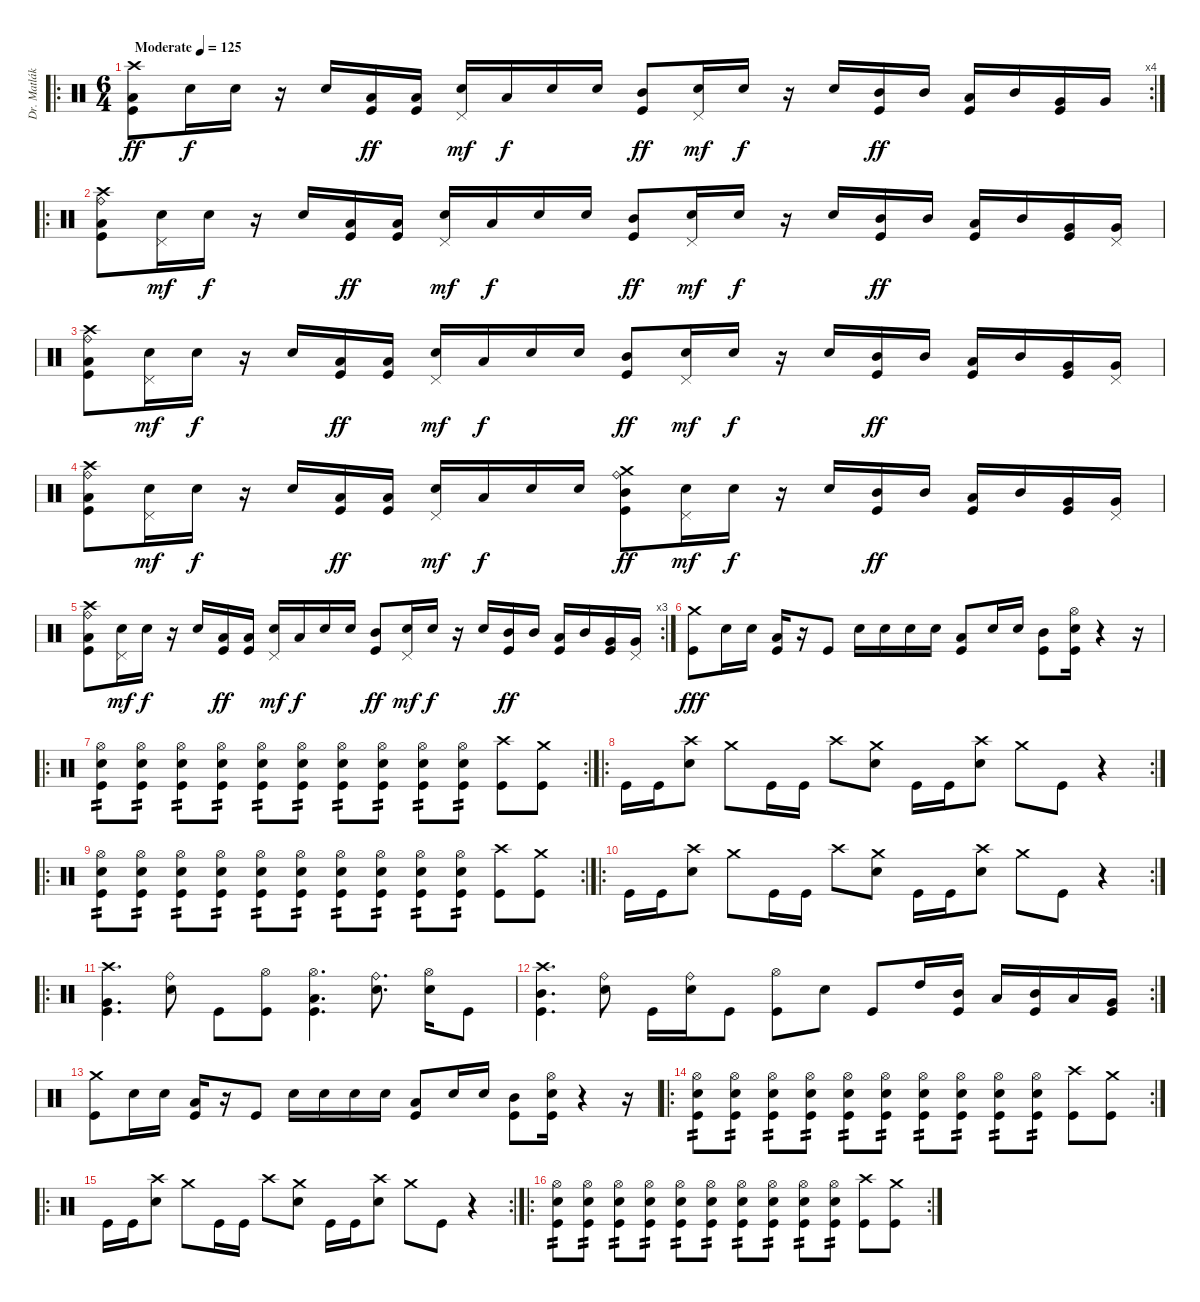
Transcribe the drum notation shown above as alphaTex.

\track ("Dr. Matlák" "Dr. Matlák") {instrument percussion}
\staff {score}
\articulation defaults
\ro
\rc 4
\ts (6 4)
\tempo (125 "Moderate")
\clef neutral
\ks c
("Crash high (hit)" "Low Tom (hit)" "Kick (hit)").8{dy ff} "Electric Snare (hit)".16{dy f} "Electric Snare (hit)".16 r.16 "Electric Snare (hit)".16 ("Low Tom (hit)" "Kick (hit)").16{dy ff} ("Low Tom (hit)" "Kick (hit)").16 ("Pedal Hi-Hat (hit)" "Electric Snare (hit)").16{dy mf} "Low Tom (hit)".16{dy f} "Electric Snare (hit)".16 "Electric Snare (hit)".16 ("Mid Tom (hit)" "Kick (hit)").8{dy ff} ("Pedal Hi-Hat (hit)" "Electric Snare (hit)").16{dy mf} "Electric Snare (hit)".16{dy f} r.16 "Electric Snare (hit)".16 ("Mid Tom (hit)" "Kick (hit)").16{dy ff} "Mid Tom (hit)".16 ("Low Tom (hit)" "Kick (hit)").16 "Mid Tom (hit)".16 ("Very Low Tom (hit)" "Kick (hit)").16 "Very Low Tom (hit)".16 |
\ro
("Crash high (hit)" "Ride (bell)" "Low Tom (hit)" "Kick (hit)").8 ("Pedal Hi-Hat (hit)" "Electric Snare (hit)").16{dy mf} "Electric Snare (hit)".16{dy f} r.16 "Electric Snare (hit)".16 ("Low Tom (hit)" "Kick (hit)").16{dy ff} ("Low Tom (hit)" "Kick (hit)").16 ("Pedal Hi-Hat (hit)" "Electric Snare (hit)").16{dy mf} "Low Tom (hit)".16{dy f} "Electric Snare (hit)".16 "Electric Snare (hit)".16 ("Mid Tom (hit)" "Kick (hit)").8{dy ff} ("Pedal Hi-Hat (hit)" "Electric Snare (hit)").16{dy mf} "Electric Snare (hit)".16{dy f} r.16 "Electric Snare (hit)".16 ("Mid Tom (hit)" "Kick (hit)").16{dy ff} "Mid Tom (hit)".16 ("Low Tom (hit)" "Kick (hit)").16 "Mid Tom (hit)".16 ("Very Low Tom (hit)" "Kick (hit)").16 ("Pedal Hi-Hat (hit)" "Very Low Tom (hit)").16 |
("Crash high (hit)" "Ride (bell)" "Low Tom (hit)" "Kick (hit)").8 ("Pedal Hi-Hat (hit)" "Electric Snare (hit)").16{dy mf} "Electric Snare (hit)".16{dy f} r.16 "Electric Snare (hit)".16 ("Low Tom (hit)" "Kick (hit)").16{dy ff} ("Low Tom (hit)" "Kick (hit)").16 ("Pedal Hi-Hat (hit)" "Electric Snare (hit)").16{dy mf} "Low Tom (hit)".16{dy f} "Electric Snare (hit)".16 "Electric Snare (hit)".16 ("Mid Tom (hit)" "Kick (hit)").8{dy ff} ("Pedal Hi-Hat (hit)" "Electric Snare (hit)").16{dy mf} "Electric Snare (hit)".16{dy f} r.16 "Electric Snare (hit)".16 ("Mid Tom (hit)" "Kick (hit)").16{dy ff} "Mid Tom (hit)".16 ("Low Tom (hit)" "Kick (hit)").16 "Mid Tom (hit)".16 ("Very Low Tom (hit)" "Kick (hit)").16 ("Pedal Hi-Hat (hit)" "Very Low Tom (hit)").16 |
("Crash high (hit)" "Ride (bell)" "Low Tom (hit)" "Kick (hit)").8 ("Pedal Hi-Hat (hit)" "Electric Snare (hit)").16{dy mf} "Electric Snare (hit)".16{dy f} r.16 "Electric Snare (hit)".16 ("Low Tom (hit)" "Kick (hit)").16{dy ff} ("Low Tom (hit)" "Kick (hit)").16 ("Pedal Hi-Hat (hit)" "Electric Snare (hit)").16{dy mf} "Low Tom (hit)".16{dy f} "Electric Snare (hit)".16 "Electric Snare (hit)".16 ("Crash medium (hit)" "Ride (bell)" "Mid Tom (hit)" "Kick (hit)").8{dy ff} ("Pedal Hi-Hat (hit)" "Electric Snare (hit)").16{dy mf} "Electric Snare (hit)".16{dy f} r.16 "Electric Snare (hit)".16 ("Mid Tom (hit)" "Kick (hit)").16{dy ff} "Mid Tom (hit)".16 ("Low Tom (hit)" "Kick (hit)").16 "Mid Tom (hit)".16 ("Very Low Tom (hit)" "Kick (hit)").16 ("Pedal Hi-Hat (hit)" "Very Low Tom (hit)").16 |
\rc 3
("Crash high (hit)" "Ride (bell)" "Low Tom (hit)" "Kick (hit)").8 ("Pedal Hi-Hat (hit)" "Electric Snare (hit)").16{dy mf} "Electric Snare (hit)".16{dy f} r.16 "Electric Snare (hit)".16 ("Low Tom (hit)" "Kick (hit)").16{dy ff} ("Low Tom (hit)" "Kick (hit)").16 ("Pedal Hi-Hat (hit)" "Electric Snare (hit)").16{dy mf} "Low Tom (hit)".16{dy f} "Electric Snare (hit)".16 "Electric Snare (hit)".16 ("Mid Tom (hit)" "Kick (hit)").8{dy ff} ("Pedal Hi-Hat (hit)" "Electric Snare (hit)").16{dy mf} "Electric Snare (hit)".16{dy f} r.16 "Electric Snare (hit)".16 ("Mid Tom (hit)" "Kick (hit)").16{dy ff} "Mid Tom (hit)".16 ("Low Tom (hit)" "Kick (hit)").16 "Mid Tom (hit)".16 ("Very Low Tom (hit)" "Kick (hit)").16 ("Pedal Hi-Hat (hit)" "Very Low Tom (hit)").16 |
("Crash medium (hit)" "Kick (hit)").8{dy fff} "Electric Snare (hit)".16 "Electric Snare (hit)".16 ("Low Tom (hit)" "Kick (hit)").16 r.16 "Kick (hit)".8 "Electric Snare (hit)".16 "Electric Snare (hit)".16 "Electric Snare (hit)".16 "Electric Snare (hit)".16 ("Low Tom (hit)" "Kick (hit)").8 "Electric Snare (hit)".16 "Electric Snare (hit)".16 ("Mid Tom (hit)" "Kick (hit)").8 ("Hi-Hat (open)" "Electric Snare (hit)" "Kick (hit)").16 r.4 r.16 |
\ro
\rc 2
("Hi-Hat (open)" "Electric Snare (hit)" "Kick (hit)").8{tp 2} ("Hi-Hat (open)" "Electric Snare (hit)" "Kick (hit)").8{tp 2} ("Hi-Hat (open)" "Electric Snare (hit)" "Kick (hit)").8{tp 2} ("Hi-Hat (open)" "Electric Snare (hit)" "Kick (hit)").8{tp 2} ("Hi-Hat (open)" "Electric Snare (hit)" "Kick (hit)").8{tp 2} ("Hi-Hat (open)" "Electric Snare (hit)" "Kick (hit)").8{tp 2} ("Hi-Hat (open)" "Electric Snare (hit)" "Kick (hit)").8{tp 2} ("Hi-Hat (open)" "Electric Snare (hit)" "Kick (hit)").8{tp 2} ("Hi-Hat (open)" "Electric Snare (hit)" "Kick (hit)").8{tp 2} ("Hi-Hat (open)" "Electric Snare (hit)" "Kick (hit)").8{tp 2} ("Crash high (hit)" "Kick (hit)").8 ("Crash medium (hit)" "Kick (hit)").8 |
\ro
\rc 2 "Kick (hit)".16 "Kick (hit)".16
("Crash high (hit)" "Electric Snare (hit)").8 "Crash medium (hit)".8 "Kick (hit)".16 "Kick (hit)".16 "Crash high (hit)".8 ("Crash medium (hit)" "Electric Snare (hit)").8 "Kick (hit)".16 "Kick (hit)".16 ("Crash high (hit)" "Electric Snare (hit)").8 "Crash medium (hit)".8 "Kick (hit)".8 r.4 |
\ro
\rc 2
("Hi-Hat (open)" "Electric Snare (hit)" "Kick (hit)").8{tp 2} ("Hi-Hat (open)" "Electric Snare (hit)" "Kick (hit)").8{tp 2} ("Hi-Hat (open)" "Electric Snare (hit)" "Kick (hit)").8{tp 2} ("Hi-Hat (open)" "Electric Snare (hit)" "Kick (hit)").8{tp 2} ("Hi-Hat (open)" "Electric Snare (hit)" "Kick (hit)").8{tp 2} ("Hi-Hat (open)" "Electric Snare (hit)" "Kick (hit)").8{tp 2} ("Hi-Hat (open)" "Electric Snare (hit)" "Kick (hit)").8{tp 2} ("Hi-Hat (open)" "Electric Snare (hit)" "Kick (hit)").8{tp 2} ("Hi-Hat (open)" "Electric Snare (hit)" "Kick (hit)").8{tp 2} ("Hi-Hat (open)" "Electric Snare (hit)" "Kick (hit)").8{tp 2} ("Crash high (hit)" "Kick (hit)").8 ("Crash medium (hit)" "Kick (hit)").8 |
\ro
\rc 2 "Kick (hit)".16 "Kick (hit)".16
("Crash high (hit)" "Electric Snare (hit)").8 "Crash medium (hit)".8 "Kick (hit)".16 "Kick (hit)".16 "Crash high (hit)".8 ("Crash medium (hit)" "Electric Snare (hit)").8 "Kick (hit)".16 "Kick (hit)".16 ("Crash high (hit)" "Electric Snare (hit)").8 "Crash medium (hit)".8 "Kick (hit)".8 r.4 |
\ro
("Crash high (hit)" "Very Low Tom (hit)" "Kick (hit)").4{d} ("Ride (bell)" "Electric Snare (hit)").8 "Kick (hit)".8 ("Hi-Hat (open)" "Kick (hit)").8 ("Hi-Hat (open)" "Low Tom (hit)" "Kick (hit)").4{d} ("Ride (bell)" "Electric Snare (hit)").8{d} ("Hi-Hat (open)" "Electric Snare (hit)").16 "Kick (hit)".8 |
\rc 2
("Crash high (hit)" "Mid Tom (hit)" "Kick (hit)").4{d} ("Ride (bell)" "Electric Snare (hit)").8 "Kick (hit)".16 ("Ride (bell)" "Electric Snare (hit)").16 "Kick (hit)".8 ("Hi-Hat (open)" "Kick (hit)").8 "Electric Snare (hit)".8 "Kick (hit)".8 "High Tom (hit)".16 ("Mid Tom (hit)" "Kick (hit)").16 "Low Tom (hit)".16 ("Mid Tom (hit)" "Kick (hit)").16 "Low Tom (hit)".16 ("Very Low Tom (hit)" "Kick (hit)").16 |
("Crash medium (hit)" "Kick (hit)").8 "Electric Snare (hit)".16 "Electric Snare (hit)".16 ("Low Tom (hit)" "Kick (hit)").16 r.16 "Kick (hit)".8 "Electric Snare (hit)".16 "Electric Snare (hit)".16 "Electric Snare (hit)".16 "Electric Snare (hit)".16 ("Low Tom (hit)" "Kick (hit)").8 "Electric Snare (hit)".16 "Electric Snare (hit)".16 ("Mid Tom (hit)" "Kick (hit)").8 ("Hi-Hat (open)" "Electric Snare (hit)" "Kick (hit)").16 r.4 r.16 |
\ro
\rc 2
("Hi-Hat (open)" "Electric Snare (hit)" "Kick (hit)").8{tp 2} ("Hi-Hat (open)" "Electric Snare (hit)" "Kick (hit)").8{tp 2} ("Hi-Hat (open)" "Electric Snare (hit)" "Kick (hit)").8{tp 2} ("Hi-Hat (open)" "Electric Snare (hit)" "Kick (hit)").8{tp 2} ("Hi-Hat (open)" "Electric Snare (hit)" "Kick (hit)").8{tp 2} ("Hi-Hat (open)" "Electric Snare (hit)" "Kick (hit)").8{tp 2} ("Hi-Hat (open)" "Electric Snare (hit)" "Kick (hit)").8{tp 2} ("Hi-Hat (open)" "Electric Snare (hit)" "Kick (hit)").8{tp 2} ("Hi-Hat (open)" "Electric Snare (hit)" "Kick (hit)").8{tp 2} ("Hi-Hat (open)" "Electric Snare (hit)" "Kick (hit)").8{tp 2} ("Crash high (hit)" "Kick (hit)").8 ("Crash medium (hit)" "Kick (hit)").8 |
\ro
\rc 2 "Kick (hit)".16 "Kick (hit)".16
("Crash high (hit)" "Electric Snare (hit)").8 "Crash medium (hit)".8 "Kick (hit)".16 "Kick (hit)".16 "Crash high (hit)".8 ("Crash medium (hit)" "Electric Snare (hit)").8 "Kick (hit)".16 "Kick (hit)".16 ("Crash high (hit)" "Electric Snare (hit)").8 "Crash medium (hit)".8 "Kick (hit)".8 r.4 |
\ro
\rc 2
("Hi-Hat (open)" "Electric Snare (hit)" "Kick (hit)").8{tp 2} ("Hi-Hat (open)" "Electric Snare (hit)" "Kick (hit)").8{tp 2} ("Hi-Hat (open)" "Electric Snare (hit)" "Kick (hit)").8{tp 2} ("Hi-Hat (open)" "Electric Snare (hit)" "Kick (hit)").8{tp 2} ("Hi-Hat (open)" "Electric Snare (hit)" "Kick (hit)").8{tp 2} ("Hi-Hat (open)" "Electric Snare (hit)" "Kick (hit)").8{tp 2} ("Hi-Hat (open)" "Electric Snare (hit)" "Kick (hit)").8{tp 2} ("Hi-Hat (open)" "Electric Snare (hit)" "Kick (hit)").8{tp 2} ("Hi-Hat (open)" "Electric Snare (hit)" "Kick (hit)").8{tp 2} ("Hi-Hat (open)" "Electric Snare (hit)" "Kick (hit)").8{tp 2} ("Crash high (hit)" "Kick (hit)").8 ("Crash medium (hit)" "Kick (hit)").8
